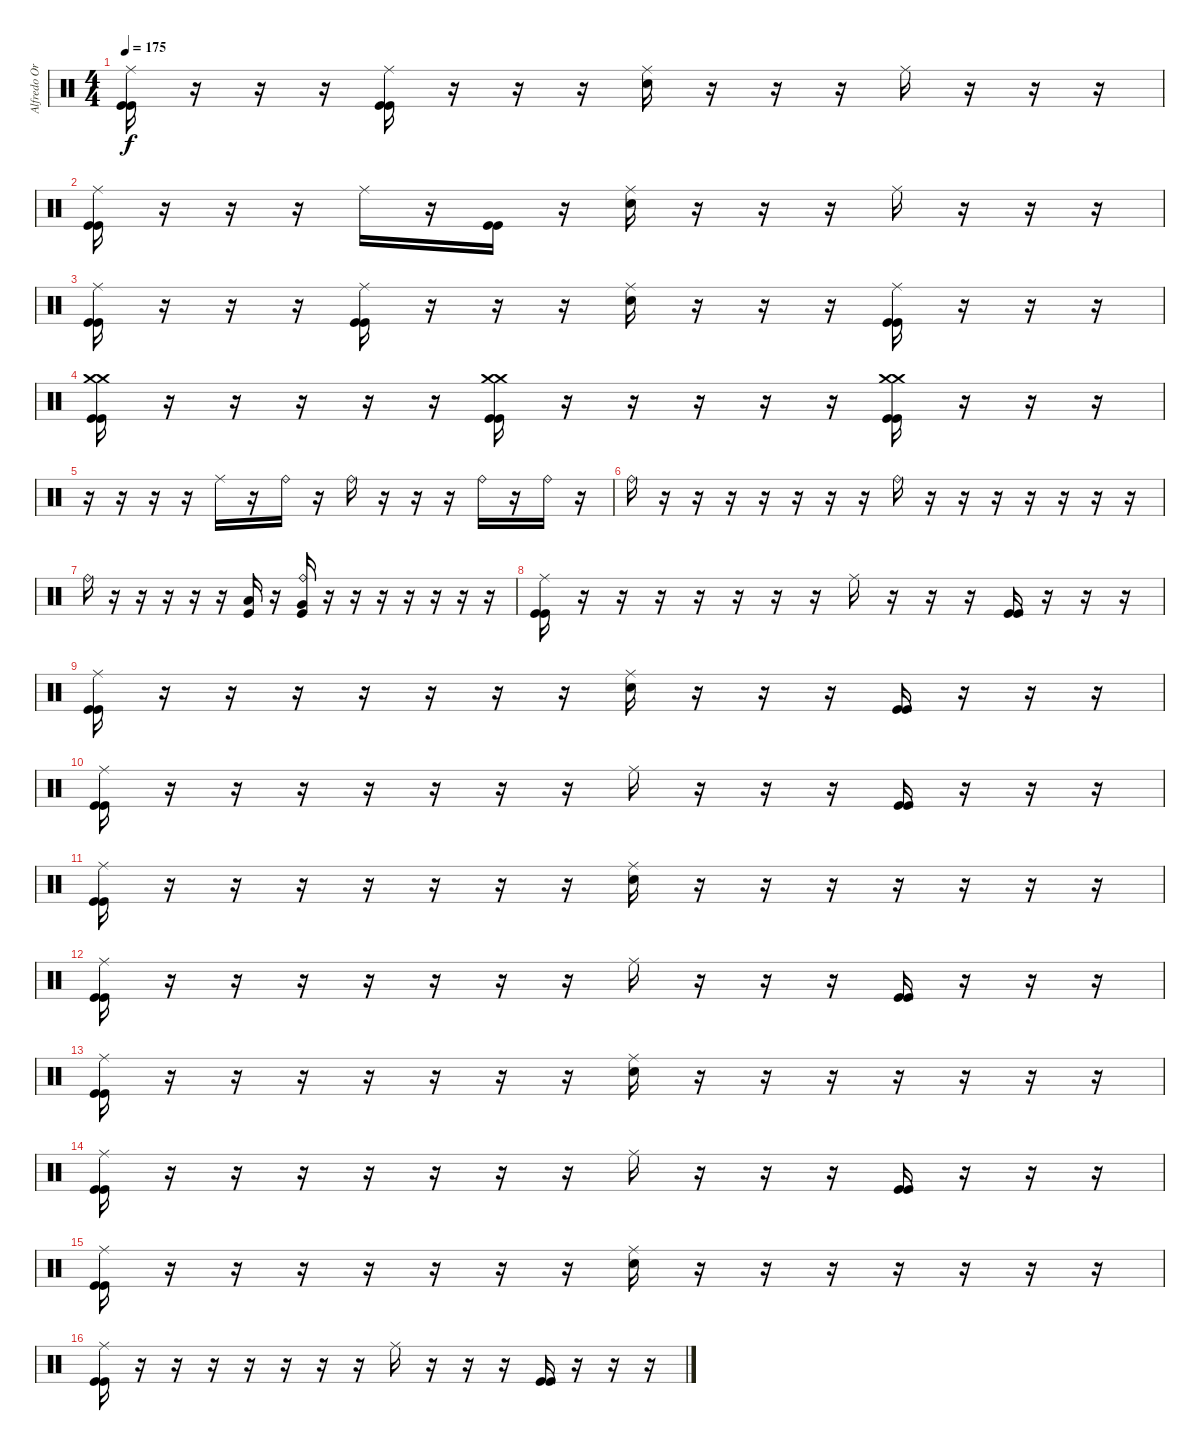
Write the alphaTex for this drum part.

\track ("Alfredo Ortiz" "Alfredo Or") {instrument percussion}
\staff {score}
\articulation defaults
\ts (4 4)
\tempo 175
\clef neutral
\ks c
("Ride (middle)" "Kick (hit)" "Kick (hit)").16{dy f} r.16 r.16 r.16 ("Ride (middle)" "Kick (hit)" "Kick (hit)").16 r.16 r.16 r.16 ("Ride (middle)" "Snare (hit) 2").16 r.16 r.16 r.16 "Ride (middle)".16 r.16 r.16 r.16 |
("Ride (middle)" "Kick (hit)" "Kick (hit)").16 r.16 r.16 r.16 "Ride (middle)".16 r.16 ("Kick (hit)" "Kick (hit)").16 r.16 ("Ride (middle)" "Snare (hit) 2").16 r.16 r.16 r.16 "Ride (middle)".16 r.16 r.16 r.16 |
("Ride (middle)" "Kick (hit)" "Kick (hit)").16 r.16 r.16 r.16 ("Ride (middle)" "Kick (hit)" "Kick (hit)").16 r.16 r.16 r.16 ("Ride (middle)" "Snare (hit) 2").16 r.16 r.16 r.16 ("Ride (middle)" "Kick (hit)" "Kick (hit)").16 r.16 r.16 r.16 |
("Crash medium (hit)" "Crash medium (hit)" "Kick (hit)" "Kick (hit)").16 r.16 r.16 r.16 r.16 r.16 ("Crash medium (hit)" "Crash medium (hit)" "Kick (hit)" "Kick (hit)").16 r.16 r.16 r.16 r.16 r.16 ("Crash medium (hit)" "Crash medium (hit)" "Kick (hit)" "Kick (hit)").16 r.16 r.16 r.16 |
r.16 r.16 r.16 r.16 "Ride (middle)".16 r.16 "Ride (bell)".16 r.16 "Ride (bell)".16 r.16 r.16 r.16 "Ride (bell)".16 r.16 "Ride (bell)".16 r.16 |
"Ride (bell)".16 r.16 r.16 r.16 r.16 r.16 r.16 r.16 "Ride (bell)".16 r.16 r.16 r.16 r.16 r.16 r.16 r.16 |
"Ride (bell)".16 r.16 r.16 r.16 r.16 r.16 ("Low Tom (hit)" "Kick (hit)").16 r.16 ("Ride (bell)" "Very Low Tom (hit)" "Kick (hit)").16 r.16 r.16 r.16 r.16 r.16 r.16 r.16 |
("Ride (middle)" "Kick (hit)" "Kick (hit)").16 r.16 r.16 r.16 r.16 r.16 r.16 r.16 "Ride (middle)".16 r.16 r.16 r.16 ("Kick (hit)" "Kick (hit)").16 r.16 r.16 r.16 |
("Ride (middle)" "Kick (hit)" "Kick (hit)").16 r.16 r.16 r.16 r.16 r.16 r.16 r.16 ("Ride (middle)" "Snare (hit) 2").16 r.16 r.16 r.16 ("Kick (hit)" "Kick (hit)").16 r.16 r.16 r.16 |
("Ride (middle)" "Kick (hit)" "Kick (hit)").16 r.16 r.16 r.16 r.16 r.16 r.16 r.16 "Ride (middle)".16 r.16 r.16 r.16 ("Kick (hit)" "Kick (hit)").16 r.16 r.16 r.16 |
("Ride (middle)" "Kick (hit)" "Kick (hit)").16 r.16 r.16 r.16 r.16 r.16 r.16 r.16 ("Ride (middle)" "Snare (hit) 2").16 r.16 r.16 r.16 r.16 r.16 r.16 r.16 |
("Ride (middle)" "Kick (hit)" "Kick (hit)").16 r.16 r.16 r.16 r.16 r.16 r.16 r.16 "Ride (middle)".16 r.16 r.16 r.16 ("Kick (hit)" "Kick (hit)").16 r.16 r.16 r.16 |
("Ride (middle)" "Kick (hit)" "Kick (hit)").16 r.16 r.16 r.16 r.16 r.16 r.16 r.16 ("Ride (middle)" "Snare (hit) 2").16 r.16 r.16 r.16 r.16 r.16 r.16 r.16 |
("Ride (middle)" "Kick (hit)" "Kick (hit)").16 r.16 r.16 r.16 r.16 r.16 r.16 r.16 "Ride (middle)".16 r.16 r.16 r.16 ("Kick (hit)" "Kick (hit)").16 r.16 r.16 r.16 |
("Ride (middle)" "Kick (hit)" "Kick (hit)").16 r.16 r.16 r.16 r.16 r.16 r.16 r.16 ("Ride (middle)" "Snare (hit) 2").16 r.16 r.16 r.16 r.16 r.16 r.16 r.16 |
("Ride (middle)" "Kick (hit)" "Kick (hit)").16 r.16 r.16 r.16 r.16 r.16 r.16 r.16 "Ride (middle)".16 r.16 r.16 r.16 ("Kick (hit)" "Kick (hit)").16 r.16 r.16 r.16
